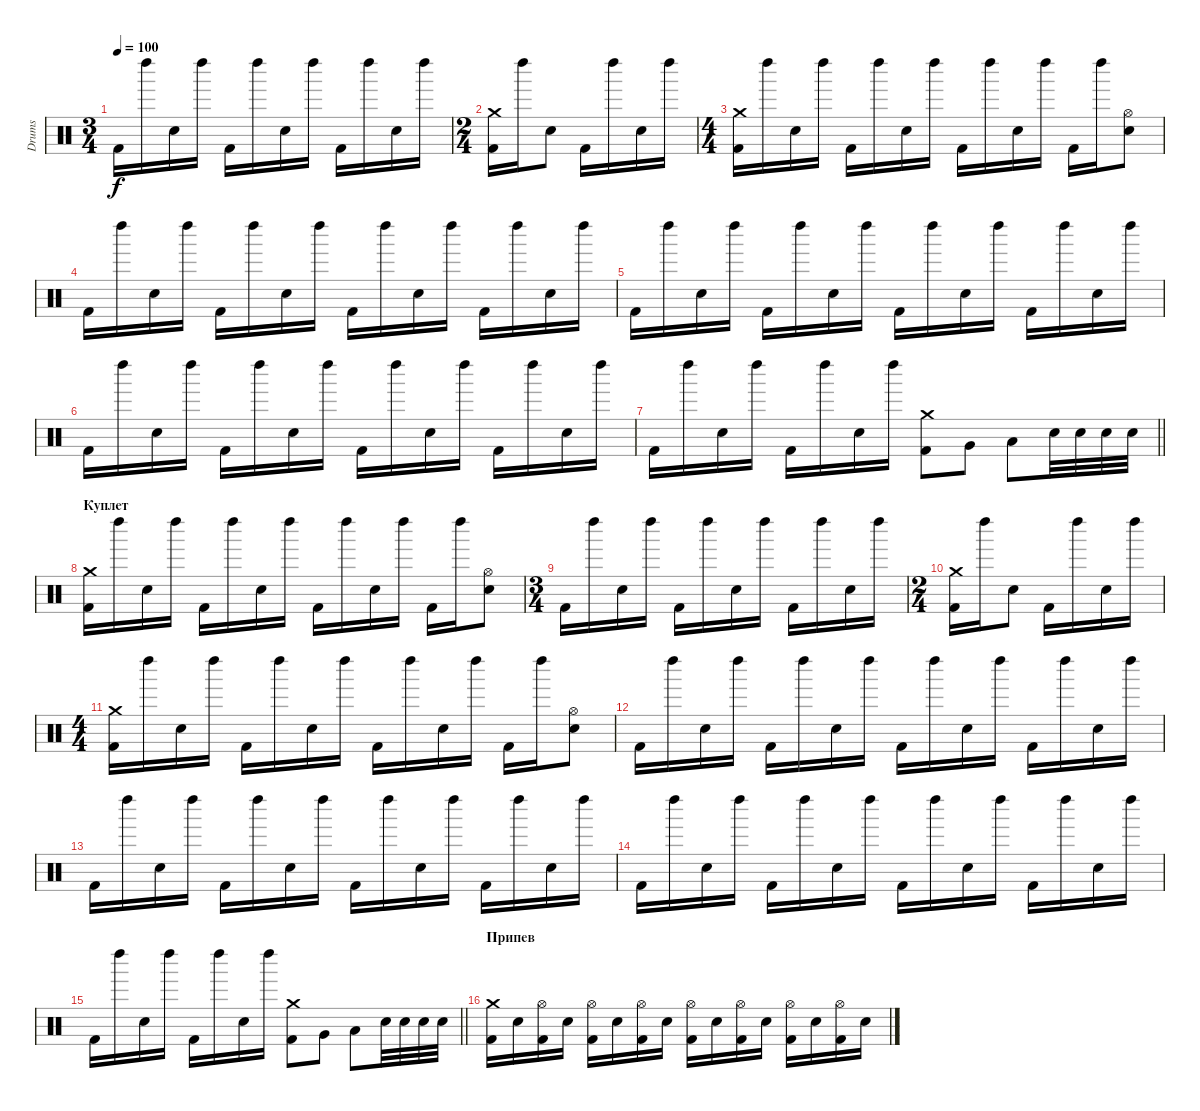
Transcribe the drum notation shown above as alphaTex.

\track ("Drums" "Drums") {instrument percussion}
\staff {score}
\articulation defaults
\ts (3 4)
\tempo 100
\clef neutral
\ks c "Kick (hit) 2".16{dy f} "Left Maraca (hit)".16 "Snare (hit) 2".16 "Left Maraca (hit)".16 "Kick (hit) 2".16 "Left Maraca (hit)".16 "Snare (hit) 2".16 "Left Maraca (hit)".16 "Kick (hit) 2".16 "Left Maraca (hit)".16 "Snare (hit) 2".16 "Left Maraca (hit)".16
|
\ts (2 4)
("Crash medium (hit)" "Kick (hit) 2").16 "Left Maraca (hit)".16 "Snare (hit) 2".8 "Kick (hit) 2".16 "Left Maraca (hit)".16 "Snare (hit) 2".16 "Left Maraca (hit)".16 |
\ts (4 4)
("Crash medium (hit)" "Kick (hit) 2").16 "Left Maraca (hit)".16 "Snare (hit) 2".16 "Left Maraca (hit)".16 "Kick (hit) 2".16 "Left Maraca (hit)".16 "Snare (hit) 2".16 "Left Maraca (hit)".16 "Kick (hit) 2".16 "Left Maraca (hit)".16 "Snare (hit) 2".16 "Left Maraca (hit)".16 "Kick (hit) 2".16 "Left Maraca (hit)".16 ("Hi-Hat (open)" "Snare (hit) 2").8 |
"Kick (hit) 2".16 "Left Maraca (hit)".16 "Snare (hit) 2".16 "Left Maraca (hit)".16 "Kick (hit) 2".16 "Left Maraca (hit)".16 "Snare (hit) 2".16 "Left Maraca (hit)".16 "Kick (hit) 2".16 "Left Maraca (hit)".16 "Snare (hit) 2".16 "Left Maraca (hit)".16 "Kick (hit) 2".16 "Left Maraca (hit)".16 "Snare (hit) 2".16 "Left Maraca (hit)".16 |
"Kick (hit) 2".16 "Left Maraca (hit)".16 "Snare (hit) 2".16 "Left Maraca (hit)".16 "Kick (hit) 2".16 "Left Maraca (hit)".16 "Snare (hit) 2".16 "Left Maraca (hit)".16 "Kick (hit) 2".16 "Left Maraca (hit)".16 "Snare (hit) 2".16 "Left Maraca (hit)".16 "Kick (hit) 2".16 "Left Maraca (hit)".16 "Snare (hit) 2".16 "Left Maraca (hit)".16 |
"Kick (hit) 2".16 "Left Maraca (hit)".16 "Snare (hit) 2".16 "Left Maraca (hit)".16 "Kick (hit) 2".16 "Left Maraca (hit)".16 "Snare (hit) 2".16 "Left Maraca (hit)".16 "Kick (hit) 2".16 "Left Maraca (hit)".16 "Snare (hit) 2".16 "Left Maraca (hit)".16 "Kick (hit) 2".16 "Left Maraca (hit)".16 "Snare (hit) 2".16 "Left Maraca (hit)".16 |
\barLineRight lightlight "Kick (hit) 2".16 "Left Maraca (hit)".16 "Snare (hit) 2".16 "Left Maraca (hit)".16 "Kick (hit) 2".16 "Left Maraca (hit)".16 "Snare (hit) 2".16 "Left Maraca (hit)".16
("Crash medium (hit)" "Kick (hit) 2").8 "Very Low Tom (hit)".8 "Low Tom (hit)".8 "Snare (hit) 2".32 "Snare (hit) 2".32 "Snare (hit) 2".32 "Snare (hit) 2".32 |
\section ("" "Куплет")
("Crash medium (hit)" "Kick (hit) 2").16 "Left Maraca (hit)".16 "Snare (hit) 2".16 "Left Maraca (hit)".16 "Kick (hit) 2".16 "Left Maraca (hit)".16 "Snare (hit) 2".16 "Left Maraca (hit)".16 "Kick (hit) 2".16 "Left Maraca (hit)".16 "Snare (hit) 2".16 "Left Maraca (hit)".16 "Kick (hit) 2".16 "Left Maraca (hit)".16 ("Hi-Hat (open)" "Snare (hit) 2").8 |
\ts (3 4)
"Kick (hit) 2".16 "Left Maraca (hit)".16 "Snare (hit) 2".16 "Left Maraca (hit)".16 "Kick (hit) 2".16 "Left Maraca (hit)".16 "Snare (hit) 2".16 "Left Maraca (hit)".16 "Kick (hit) 2".16 "Left Maraca (hit)".16 "Snare (hit) 2".16 "Left Maraca (hit)".16 |
\ts (2 4)
("Crash medium (hit)" "Kick (hit) 2").16 "Left Maraca (hit)".16 "Snare (hit) 2".8 "Kick (hit) 2".16 "Left Maraca (hit)".16 "Snare (hit) 2".16 "Left Maraca (hit)".16 |
\ts (4 4)
("Crash medium (hit)" "Kick (hit) 2").16 "Left Maraca (hit)".16 "Snare (hit) 2".16 "Left Maraca (hit)".16 "Kick (hit) 2".16 "Left Maraca (hit)".16 "Snare (hit) 2".16 "Left Maraca (hit)".16 "Kick (hit) 2".16 "Left Maraca (hit)".16 "Snare (hit) 2".16 "Left Maraca (hit)".16 "Kick (hit) 2".16 "Left Maraca (hit)".16 ("Hi-Hat (open)" "Snare (hit) 2").8 |
"Kick (hit) 2".16 "Left Maraca (hit)".16 "Snare (hit) 2".16 "Left Maraca (hit)".16 "Kick (hit) 2".16 "Left Maraca (hit)".16 "Snare (hit) 2".16 "Left Maraca (hit)".16 "Kick (hit) 2".16 "Left Maraca (hit)".16 "Snare (hit) 2".16 "Left Maraca (hit)".16 "Kick (hit) 2".16 "Left Maraca (hit)".16 "Snare (hit) 2".16 "Left Maraca (hit)".16 |
"Kick (hit) 2".16 "Left Maraca (hit)".16 "Snare (hit) 2".16 "Left Maraca (hit)".16 "Kick (hit) 2".16 "Left Maraca (hit)".16 "Snare (hit) 2".16 "Left Maraca (hit)".16 "Kick (hit) 2".16 "Left Maraca (hit)".16 "Snare (hit) 2".16 "Left Maraca (hit)".16 "Kick (hit) 2".16 "Left Maraca (hit)".16 "Snare (hit) 2".16 "Left Maraca (hit)".16 |
"Kick (hit) 2".16 "Left Maraca (hit)".16 "Snare (hit) 2".16 "Left Maraca (hit)".16 "Kick (hit) 2".16 "Left Maraca (hit)".16 "Snare (hit) 2".16 "Left Maraca (hit)".16 "Kick (hit) 2".16 "Left Maraca (hit)".16 "Snare (hit) 2".16 "Left Maraca (hit)".16 "Kick (hit) 2".16 "Left Maraca (hit)".16 "Snare (hit) 2".16 "Left Maraca (hit)".16 |
\barLineRight lightlight "Kick (hit) 2".16 "Left Maraca (hit)".16 "Snare (hit) 2".16 "Left Maraca (hit)".16 "Kick (hit) 2".16 "Left Maraca (hit)".16 "Snare (hit) 2".16 "Left Maraca (hit)".16
("Crash medium (hit)" "Kick (hit) 2").8 "Very Low Tom (hit)".8 "Low Tom (hit)".8 "Snare (hit) 2".32 "Snare (hit) 2".32 "Snare (hit) 2".32 "Snare (hit) 2".32 |
\section ("" "Припев")
("Crash medium (hit)" "Kick (hit) 2").16 "Snare (hit) 2".16 ("Hi-Hat (open)" "Kick (hit) 2").16 "Snare (hit) 2".16 ("Hi-Hat (open)" "Kick (hit) 2").16 "Snare (hit) 2".16 ("Hi-Hat (open)" "Kick (hit) 2").16 "Snare (hit) 2".16 ("Hi-Hat (open)" "Kick (hit) 2").16 "Snare (hit) 2".16 ("Hi-Hat (open)" "Kick (hit) 2").16 "Snare (hit) 2".16 ("Hi-Hat (open)" "Kick (hit) 2").16 "Snare (hit) 2".16 ("Hi-Hat (open)" "Kick (hit) 2").16 "Snare (hit) 2".16
